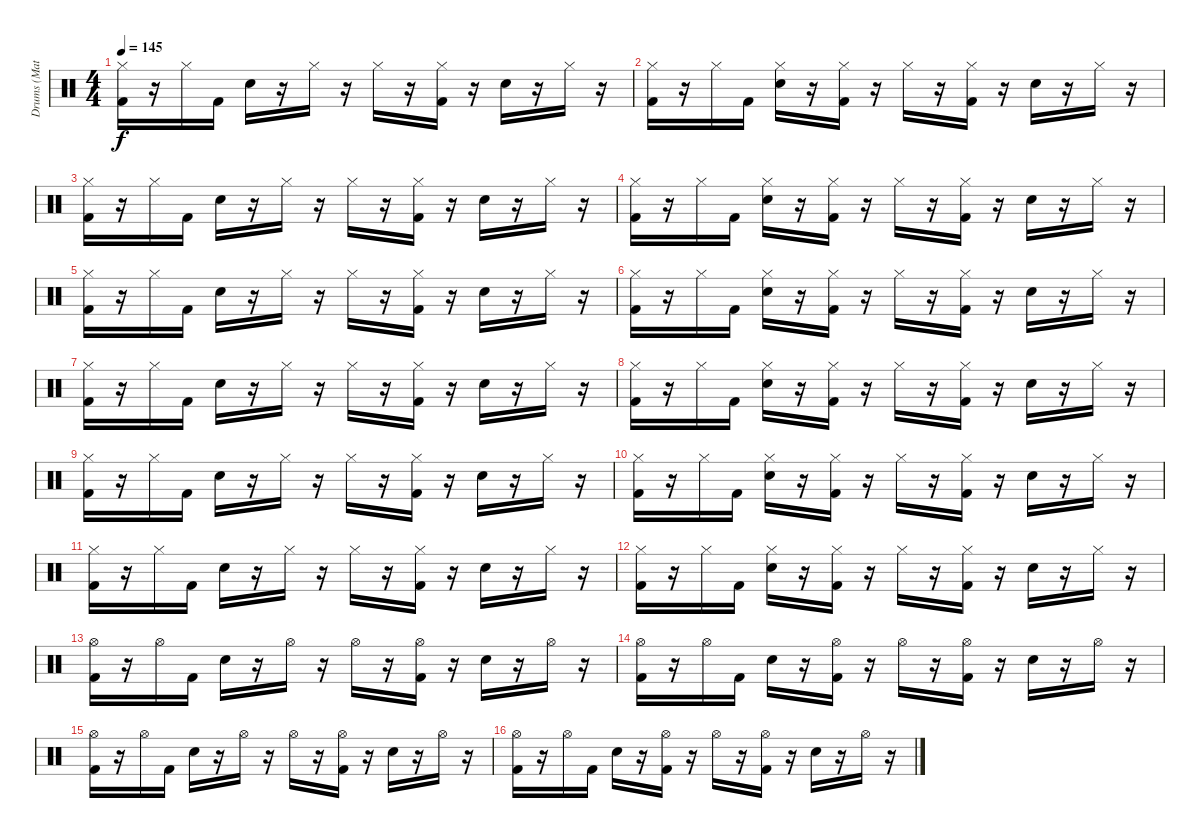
\track ("Drums (Matt)" "Drums (Mat") {instrument percussion}
\staff {score}
\articulation defaults
\ts (4 4)
\tempo 145
\clef neutral
\ks c
("Hi-Hat (closed)" "Kick (hit) 2").16{dy f} r.16 "Hi-Hat (closed)".16 "Kick (hit) 2".16 "Electric Snare (hit)".16 r.16 "Hi-Hat (closed)".16 r.16 "Hi-Hat (closed)".16 r.16 ("Hi-Hat (closed)" "Kick (hit) 2").16 r.16 "Electric Snare (hit)".16 r.16 "Hi-Hat (closed)".16 r.16 |
("Hi-Hat (closed)" "Kick (hit) 2").16 r.16 "Hi-Hat (closed)".16 "Kick (hit) 2".16 ("Hi-Hat (closed)" "Electric Snare (hit)").16 r.16 ("Hi-Hat (closed)" "Kick (hit) 2").16 r.16 "Hi-Hat (closed)".16 r.16 ("Hi-Hat (closed)" "Kick (hit) 2").16 r.16 "Electric Snare (hit)".16 r.16 "Hi-Hat (closed)".16 r.16 |
("Hi-Hat (closed)" "Kick (hit) 2").16 r.16 "Hi-Hat (closed)".16 "Kick (hit) 2".16 "Electric Snare (hit)".16 r.16 "Hi-Hat (closed)".16 r.16 "Hi-Hat (closed)".16 r.16 ("Hi-Hat (closed)" "Kick (hit) 2").16 r.16 "Electric Snare (hit)".16 r.16 "Hi-Hat (closed)".16 r.16 |
("Hi-Hat (closed)" "Kick (hit) 2").16 r.16 "Hi-Hat (closed)".16 "Kick (hit) 2".16 ("Hi-Hat (closed)" "Electric Snare (hit)").16 r.16 ("Hi-Hat (closed)" "Kick (hit) 2").16 r.16 "Hi-Hat (closed)".16 r.16 ("Hi-Hat (closed)" "Kick (hit) 2").16 r.16 "Electric Snare (hit)".16 r.16 "Hi-Hat (closed)".16 r.16 |
("Hi-Hat (closed)" "Kick (hit) 2").16 r.16 "Hi-Hat (closed)".16 "Kick (hit) 2".16 "Electric Snare (hit)".16 r.16 "Hi-Hat (closed)".16 r.16 "Hi-Hat (closed)".16 r.16 ("Hi-Hat (closed)" "Kick (hit) 2").16 r.16 "Electric Snare (hit)".16 r.16 "Hi-Hat (closed)".16 r.16 |
("Hi-Hat (closed)" "Kick (hit) 2").16 r.16 "Hi-Hat (closed)".16 "Kick (hit) 2".16 ("Hi-Hat (closed)" "Electric Snare (hit)").16 r.16 ("Hi-Hat (closed)" "Kick (hit) 2").16 r.16 "Hi-Hat (closed)".16 r.16 ("Hi-Hat (closed)" "Kick (hit) 2").16 r.16 "Electric Snare (hit)".16 r.16 "Hi-Hat (closed)".16 r.16 |
("Hi-Hat (closed)" "Kick (hit) 2").16 r.16 "Hi-Hat (closed)".16 "Kick (hit) 2".16 "Electric Snare (hit)".16 r.16 "Hi-Hat (closed)".16 r.16 "Hi-Hat (closed)".16 r.16 ("Hi-Hat (closed)" "Kick (hit) 2").16 r.16 "Electric Snare (hit)".16 r.16 "Hi-Hat (closed)".16 r.16 |
("Hi-Hat (closed)" "Kick (hit) 2").16 r.16 "Hi-Hat (closed)".16 "Kick (hit) 2".16 ("Hi-Hat (closed)" "Electric Snare (hit)").16 r.16 ("Hi-Hat (closed)" "Kick (hit) 2").16 r.16 "Hi-Hat (closed)".16 r.16 ("Hi-Hat (closed)" "Kick (hit) 2").16 r.16 "Electric Snare (hit)".16 r.16 "Hi-Hat (closed)".16 r.16 |
("Hi-Hat (closed)" "Kick (hit) 2").16 r.16 "Hi-Hat (closed)".16 "Kick (hit) 2".16 "Electric Snare (hit)".16 r.16 "Hi-Hat (closed)".16 r.16 "Hi-Hat (closed)".16 r.16 ("Hi-Hat (closed)" "Kick (hit) 2").16 r.16 "Electric Snare (hit)".16 r.16 "Hi-Hat (closed)".16 r.16 |
("Hi-Hat (closed)" "Kick (hit) 2").16 r.16 "Hi-Hat (closed)".16 "Kick (hit) 2".16 ("Hi-Hat (closed)" "Electric Snare (hit)").16 r.16 ("Hi-Hat (closed)" "Kick (hit) 2").16 r.16 "Hi-Hat (closed)".16 r.16 ("Hi-Hat (closed)" "Kick (hit) 2").16 r.16 "Electric Snare (hit)".16 r.16 "Hi-Hat (closed)".16 r.16 |
("Hi-Hat (closed)" "Kick (hit) 2").16 r.16 "Hi-Hat (closed)".16 "Kick (hit) 2".16 "Electric Snare (hit)".16 r.16 "Hi-Hat (closed)".16 r.16 "Hi-Hat (closed)".16 r.16 ("Hi-Hat (closed)" "Kick (hit) 2").16 r.16 "Electric Snare (hit)".16 r.16 "Hi-Hat (closed)".16 r.16 |
("Hi-Hat (closed)" "Kick (hit) 2").16 r.16 "Hi-Hat (closed)".16 "Kick (hit) 2".16 ("Hi-Hat (closed)" "Electric Snare (hit)").16 r.16 ("Hi-Hat (closed)" "Kick (hit) 2").16 r.16 "Hi-Hat (closed)".16 r.16 ("Hi-Hat (closed)" "Kick (hit) 2").16 r.16 "Electric Snare (hit)".16 r.16 "Hi-Hat (closed)".16 r.16 |
("Hi-Hat (open)" "Kick (hit) 2").16 r.16 "Hi-Hat (open)".16 "Kick (hit) 2".16 "Electric Snare (hit)".16 r.16 "Hi-Hat (open)".16 r.16 "Hi-Hat (open)".16 r.16 ("Hi-Hat (open)" "Kick (hit) 2").16 r.16 "Electric Snare (hit)".16 r.16 "Hi-Hat (open)".16 r.16 |
("Hi-Hat (open)" "Kick (hit) 2").16 r.16 "Hi-Hat (open)".16 "Kick (hit) 2".16 "Electric Snare (hit)".16 r.16 ("Hi-Hat (open)" "Kick (hit) 2").16 r.16 "Hi-Hat (open)".16 r.16 ("Hi-Hat (open)" "Kick (hit) 2").16 r.16 "Electric Snare (hit)".16 r.16 "Hi-Hat (open)".16 r.16 |
("Hi-Hat (open)" "Kick (hit) 2").16 r.16 "Hi-Hat (open)".16 "Kick (hit) 2".16 "Electric Snare (hit)".16 r.16 "Hi-Hat (open)".16 r.16 "Hi-Hat (open)".16 r.16 ("Hi-Hat (open)" "Kick (hit) 2").16 r.16 "Electric Snare (hit)".16 r.16 "Hi-Hat (open)".16 r.16 |
("Hi-Hat (open)" "Kick (hit) 2").16 r.16 "Hi-Hat (open)".16 "Kick (hit) 2".16 "Electric Snare (hit)".16 r.16 ("Hi-Hat (open)" "Kick (hit) 2").16 r.16 "Hi-Hat (open)".16 r.16 ("Hi-Hat (open)" "Kick (hit) 2").16 r.16 "Electric Snare (hit)".16 r.16 "Hi-Hat (open)".16 r.16
